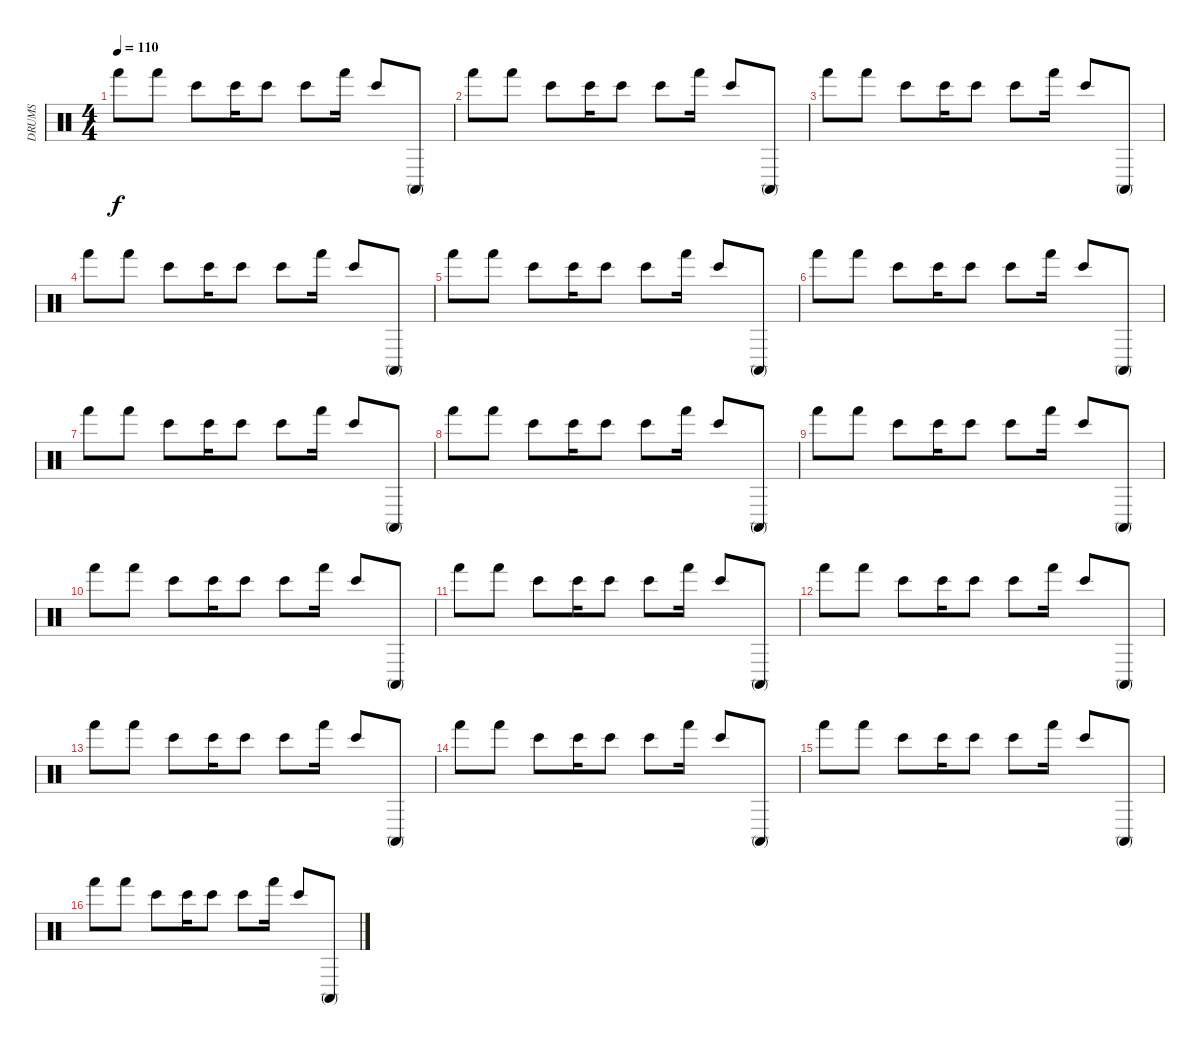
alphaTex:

\track ("DRUMS" "DRUMS") {instrument percussion}
\staff {score}
\articulation defaults
\ts (4 4)
\tempo 110
\clef neutral
\ks c "Hand (hit)".8{dy f} "Hand (hit)".8 "Bongo High (hit)".8 "Bongo High (hit)".16 "Bongo High (hit)".8 "Bongo High (hit)".8 "Hand (hit)".16 "Bongo High (hit)".8 "Conga high (mute)".8
|
"Hand (hit)".8 "Hand (hit)".8 "Bongo High (hit)".8 "Bongo High (hit)".16 "Bongo High (hit)".8 "Bongo High (hit)".8 "Hand (hit)".16 "Bongo High (hit)".8 "Conga high (mute)".8 |
"Hand (hit)".8 "Hand (hit)".8 "Bongo High (hit)".8 "Bongo High (hit)".16 "Bongo High (hit)".8 "Bongo High (hit)".8 "Hand (hit)".16 "Bongo High (hit)".8 "Conga high (mute)".8 |
"Hand (hit)".8 "Hand (hit)".8 "Bongo High (hit)".8 "Bongo High (hit)".16 "Bongo High (hit)".8 "Bongo High (hit)".8 "Hand (hit)".16 "Bongo High (hit)".8 "Conga high (mute)".8 |
"Hand (hit)".8 "Hand (hit)".8 "Bongo High (hit)".8 "Bongo High (hit)".16 "Bongo High (hit)".8 "Bongo High (hit)".8 "Hand (hit)".16 "Bongo High (hit)".8 "Conga high (mute)".8 |
"Hand (hit)".8 "Hand (hit)".8 "Bongo High (hit)".8 "Bongo High (hit)".16 "Bongo High (hit)".8 "Bongo High (hit)".8 "Hand (hit)".16 "Bongo High (hit)".8 "Conga high (mute)".8 |
"Hand (hit)".8 "Hand (hit)".8 "Bongo High (hit)".8 "Bongo High (hit)".16 "Bongo High (hit)".8 "Bongo High (hit)".8 "Hand (hit)".16 "Bongo High (hit)".8 "Conga high (mute)".8 |
"Hand (hit)".8 "Hand (hit)".8 "Bongo High (hit)".8 "Bongo High (hit)".16 "Bongo High (hit)".8 "Bongo High (hit)".8 "Hand (hit)".16 "Bongo High (hit)".8 "Conga high (mute)".8 |
"Hand (hit)".8 "Hand (hit)".8 "Bongo High (hit)".8 "Bongo High (hit)".16 "Bongo High (hit)".8 "Bongo High (hit)".8 "Hand (hit)".16 "Bongo High (hit)".8 "Conga high (mute)".8 |
"Hand (hit)".8 "Hand (hit)".8 "Bongo High (hit)".8 "Bongo High (hit)".16 "Bongo High (hit)".8 "Bongo High (hit)".8 "Hand (hit)".16 "Bongo High (hit)".8 "Conga high (mute)".8 |
"Hand (hit)".8 "Hand (hit)".8 "Bongo High (hit)".8 "Bongo High (hit)".16 "Bongo High (hit)".8 "Bongo High (hit)".8 "Hand (hit)".16 "Bongo High (hit)".8 "Conga high (mute)".8 |
"Hand (hit)".8 "Hand (hit)".8 "Bongo High (hit)".8 "Bongo High (hit)".16 "Bongo High (hit)".8 "Bongo High (hit)".8 "Hand (hit)".16 "Bongo High (hit)".8 "Conga high (mute)".8 |
"Hand (hit)".8 "Hand (hit)".8 "Bongo High (hit)".8 "Bongo High (hit)".16 "Bongo High (hit)".8 "Bongo High (hit)".8 "Hand (hit)".16 "Bongo High (hit)".8 "Conga high (mute)".8 |
"Hand (hit)".8 "Hand (hit)".8 "Bongo High (hit)".8 "Bongo High (hit)".16 "Bongo High (hit)".8 "Bongo High (hit)".8 "Hand (hit)".16 "Bongo High (hit)".8 "Conga high (mute)".8 |
"Hand (hit)".8 "Hand (hit)".8 "Bongo High (hit)".8 "Bongo High (hit)".16 "Bongo High (hit)".8 "Bongo High (hit)".8 "Hand (hit)".16 "Bongo High (hit)".8 "Conga high (mute)".8 |
"Hand (hit)".8 "Hand (hit)".8 "Bongo High (hit)".8 "Bongo High (hit)".16 "Bongo High (hit)".8 "Bongo High (hit)".8 "Hand (hit)".16 "Bongo High (hit)".8 "Conga high (mute)".8
